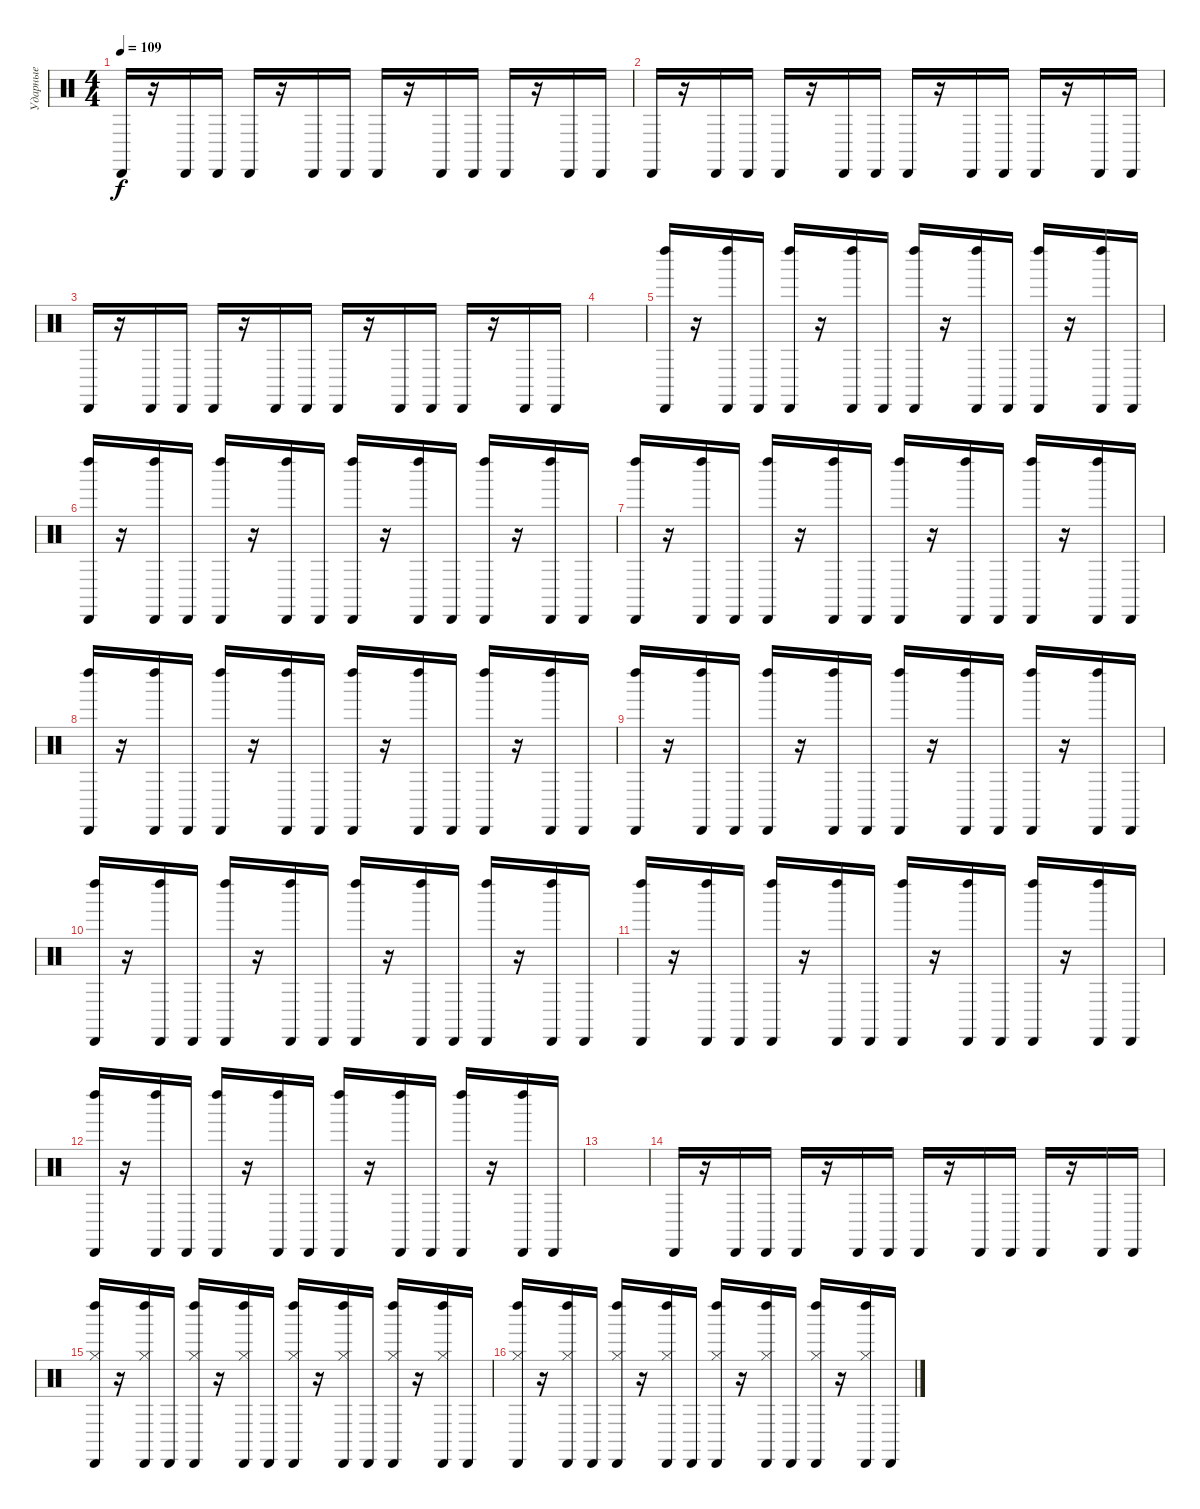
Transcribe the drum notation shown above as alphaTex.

\track ("Ударные" "Ударные") {instrument percussion}
\staff {score}
\articulation defaults
\ts (4 4)
\tempo 109
\clef neutral
\ks c "Cabasa (hit)".16{dy f}
r.16 "Cabasa (hit)".16 "Cabasa (hit)".16 "Cabasa (hit)".16 r.16 "Cabasa (hit)".16 "Cabasa (hit)".16 "Cabasa (hit)".16 r.16 "Cabasa (hit)".16 "Cabasa (hit)".16 "Cabasa (hit)".16 r.16 "Cabasa (hit)".16 "Cabasa (hit)".16 |
"Cabasa (hit)".16 r.16 "Cabasa (hit)".16 "Cabasa (hit)".16 "Cabasa (hit)".16 r.16 "Cabasa (hit)".16 "Cabasa (hit)".16 "Cabasa (hit)".16 r.16 "Cabasa (hit)".16 "Cabasa (hit)".16 "Cabasa (hit)".16 r.16 "Cabasa (hit)".16 "Cabasa (hit)".16 |
"Cabasa (hit)".16 r.16 "Cabasa (hit)".16 "Cabasa (hit)".16 "Cabasa (hit)".16 r.16 "Cabasa (hit)".16 "Cabasa (hit)".16 "Cabasa (hit)".16 r.16 "Cabasa (hit)".16 "Cabasa (hit)".16 "Cabasa (hit)".16 r.16 "Cabasa (hit)".16 "Cabasa (hit)".16 |
|
("Left Maraca (hit)" "Cabasa (hit)").16 r.16 ("Left Maraca (hit)" "Cabasa (hit)").16 "Cabasa (hit)".16 ("Left Maraca (hit)" "Cabasa (hit)").16 r.16 ("Left Maraca (hit)" "Cabasa (hit)").16 "Cabasa (hit)".16 ("Left Maraca (hit)" "Cabasa (hit)").16 r.16 ("Left Maraca (hit)" "Cabasa (hit)").16 "Cabasa (hit)".16 ("Left Maraca (hit)" "Cabasa (hit)").16 r.16 ("Left Maraca (hit)" "Cabasa (hit)").16 "Cabasa (hit)".16 |
("Left Maraca (hit)" "Cabasa (hit)").16 r.16 ("Left Maraca (hit)" "Cabasa (hit)").16 "Cabasa (hit)".16 ("Left Maraca (hit)" "Cabasa (hit)").16 r.16 ("Left Maraca (hit)" "Cabasa (hit)").16 "Cabasa (hit)".16 ("Left Maraca (hit)" "Cabasa (hit)").16 r.16 ("Left Maraca (hit)" "Cabasa (hit)").16 "Cabasa (hit)".16 ("Left Maraca (hit)" "Cabasa (hit)").16 r.16 ("Left Maraca (hit)" "Cabasa (hit)").16 "Cabasa (hit)".16 |
("Left Maraca (hit)" "Cabasa (hit)").16 r.16 ("Left Maraca (hit)" "Cabasa (hit)").16 "Cabasa (hit)".16 ("Left Maraca (hit)" "Cabasa (hit)").16 r.16 ("Left Maraca (hit)" "Cabasa (hit)").16 "Cabasa (hit)".16 ("Left Maraca (hit)" "Cabasa (hit)").16 r.16 ("Left Maraca (hit)" "Cabasa (hit)").16 "Cabasa (hit)".16 ("Left Maraca (hit)" "Cabasa (hit)").16 r.16 ("Left Maraca (hit)" "Cabasa (hit)").16 "Cabasa (hit)".16 |
("Left Maraca (hit)" "Cabasa (hit)").16 r.16 ("Left Maraca (hit)" "Cabasa (hit)").16 "Cabasa (hit)".16 ("Left Maraca (hit)" "Cabasa (hit)").16 r.16 ("Left Maraca (hit)" "Cabasa (hit)").16 "Cabasa (hit)".16 ("Left Maraca (hit)" "Cabasa (hit)").16 r.16 ("Left Maraca (hit)" "Cabasa (hit)").16 "Cabasa (hit)".16 ("Left Maraca (hit)" "Cabasa (hit)").16 r.16 ("Left Maraca (hit)" "Cabasa (hit)").16 "Cabasa (hit)".16 |
("Left Maraca (hit)" "Cabasa (hit)").16 r.16 ("Left Maraca (hit)" "Cabasa (hit)").16 "Cabasa (hit)".16 ("Left Maraca (hit)" "Cabasa (hit)").16 r.16 ("Left Maraca (hit)" "Cabasa (hit)").16 "Cabasa (hit)".16 ("Left Maraca (hit)" "Cabasa (hit)").16 r.16 ("Left Maraca (hit)" "Cabasa (hit)").16 "Cabasa (hit)".16 ("Left Maraca (hit)" "Cabasa (hit)").16 r.16 ("Left Maraca (hit)" "Cabasa (hit)").16 "Cabasa (hit)".16 |
("Left Maraca (hit)" "Cabasa (hit)").16 r.16 ("Left Maraca (hit)" "Cabasa (hit)").16 "Cabasa (hit)".16 ("Left Maraca (hit)" "Cabasa (hit)").16 r.16 ("Left Maraca (hit)" "Cabasa (hit)").16 "Cabasa (hit)".16 ("Left Maraca (hit)" "Cabasa (hit)").16 r.16 ("Left Maraca (hit)" "Cabasa (hit)").16 "Cabasa (hit)".16 ("Left Maraca (hit)" "Cabasa (hit)").16 r.16 ("Left Maraca (hit)" "Cabasa (hit)").16 "Cabasa (hit)".16 |
("Left Maraca (hit)" "Cabasa (hit)").16 r.16 ("Left Maraca (hit)" "Cabasa (hit)").16 "Cabasa (hit)".16 ("Left Maraca (hit)" "Cabasa (hit)").16 r.16 ("Left Maraca (hit)" "Cabasa (hit)").16 "Cabasa (hit)".16 ("Left Maraca (hit)" "Cabasa (hit)").16 r.16 ("Left Maraca (hit)" "Cabasa (hit)").16 "Cabasa (hit)".16 ("Left Maraca (hit)" "Cabasa (hit)").16 r.16 ("Left Maraca (hit)" "Cabasa (hit)").16 "Cabasa (hit)".16 |
("Left Maraca (hit)" "Cabasa (hit)").16 r.16 ("Left Maraca (hit)" "Cabasa (hit)").16 "Cabasa (hit)".16 ("Left Maraca (hit)" "Cabasa (hit)").16 r.16 ("Left Maraca (hit)" "Cabasa (hit)").16 "Cabasa (hit)".16 ("Left Maraca (hit)" "Cabasa (hit)").16 r.16 ("Left Maraca (hit)" "Cabasa (hit)").16 "Cabasa (hit)".16 ("Left Maraca (hit)" "Cabasa (hit)").16 r.16 ("Left Maraca (hit)" "Cabasa (hit)").16 "Cabasa (hit)".16 |
|
"Cabasa (hit)".16 r.16 "Cabasa (hit)".16 "Cabasa (hit)".16 "Cabasa (hit)".16 r.16 "Cabasa (hit)".16 "Cabasa (hit)".16 "Cabasa (hit)".16 r.16 "Cabasa (hit)".16 "Cabasa (hit)".16 "Cabasa (hit)".16 r.16 "Cabasa (hit)".16 "Cabasa (hit)".16 |
("Left Maraca (hit)" "Cabasa (hit)" "Hi-Hat (closed)").16 r.16 ("Left Maraca (hit)" "Cabasa (hit)" "Hi-Hat (closed)").16 "Cabasa (hit)".16 ("Left Maraca (hit)" "Cabasa (hit)" "Hi-Hat (closed)").16 r.16 ("Left Maraca (hit)" "Cabasa (hit)" "Hi-Hat (closed)").16 "Cabasa (hit)".16 ("Left Maraca (hit)" "Cabasa (hit)" "Hi-Hat (closed)").16 r.16 ("Left Maraca (hit)" "Cabasa (hit)" "Hi-Hat (closed)").16 "Cabasa (hit)".16 ("Left Maraca (hit)" "Cabasa (hit)" "Hi-Hat (closed)").16 r.16 ("Left Maraca (hit)" "Cabasa (hit)" "Hi-Hat (closed)").16 "Cabasa (hit)".16 |
("Left Maraca (hit)" "Cabasa (hit)" "Hi-Hat (closed)").16 r.16 ("Left Maraca (hit)" "Cabasa (hit)" "Hi-Hat (closed)").16 "Cabasa (hit)".16 ("Left Maraca (hit)" "Cabasa (hit)" "Hi-Hat (closed)").16 r.16 ("Left Maraca (hit)" "Cabasa (hit)" "Hi-Hat (closed)").16 "Cabasa (hit)".16 ("Left Maraca (hit)" "Cabasa (hit)" "Hi-Hat (closed)").16 r.16 ("Left Maraca (hit)" "Cabasa (hit)" "Hi-Hat (closed)").16 "Cabasa (hit)".16 ("Left Maraca (hit)" "Cabasa (hit)" "Hi-Hat (closed)").16 r.16 ("Left Maraca (hit)" "Cabasa (hit)" "Hi-Hat (closed)").16 "Cabasa (hit)".16
